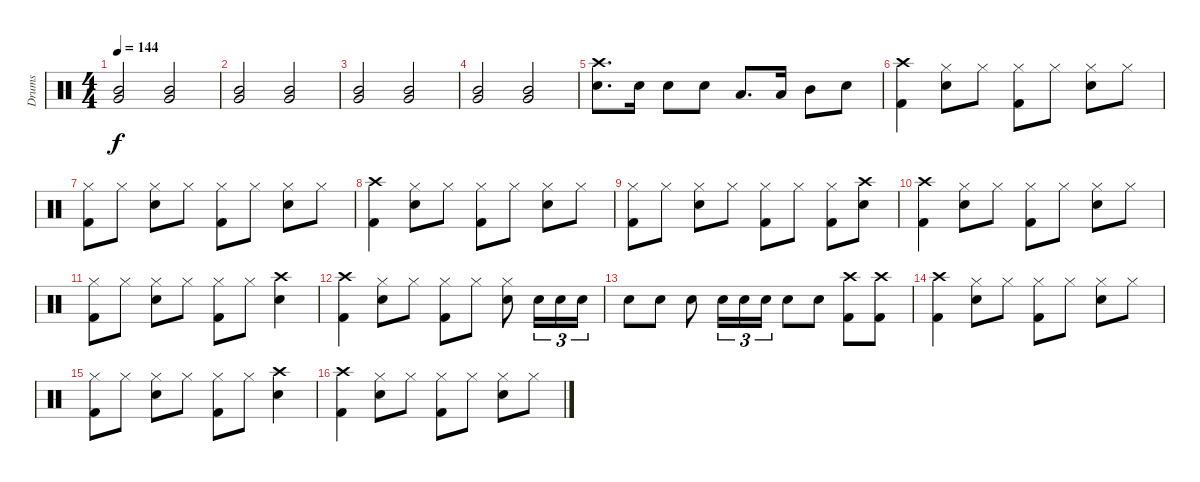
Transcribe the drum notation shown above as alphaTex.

\track ("Drums" "Drums") {instrument percussion}
\staff {score}
\articulation defaults
\ts (4 4)
\tempo 144
\clef neutral
\ks c
("Very Low Tom (hit)" "Mid Tom (hit)").2{dy f} ("Very Low Tom (hit)" "Mid Tom (hit)").2 |
("Very Low Tom (hit)" "Mid Tom (hit)").2 ("Very Low Tom (hit)" "Mid Tom (hit)").2 |
("Very Low Tom (hit)" "Mid Tom (hit)").2 ("Very Low Tom (hit)" "Mid Tom (hit)").2 |
("Very Low Tom (hit)" "Mid Tom (hit)").2 ("Very Low Tom (hit)" "Mid Tom (hit)").2 |
("Crash high (hit)" "Snare (hit) 2").8{d} "Snare (hit) 2".16 "Snare (hit) 2".8 "Snare (hit) 2".8 "Low Tom (hit)".8{d} "Low Tom (hit)".16 "Mid Tom (hit)".8 "Snare (hit) 2".8 |
("Crash high (hit)" "Kick (hit) 2").4 ("Hi-Hat (closed)" "Snare (hit) 2").8 "Hi-Hat (closed)".8 ("Hi-Hat (closed)" "Kick (hit) 2").8 "Hi-Hat (closed)".8 ("Hi-Hat (closed)" "Snare (hit) 2").8 "Hi-Hat (closed)".8 |
("Hi-Hat (closed)" "Kick (hit) 2").8 "Hi-Hat (closed)".8 ("Hi-Hat (closed)" "Snare (hit) 2").8 "Hi-Hat (closed)".8 ("Hi-Hat (closed)" "Kick (hit) 2").8 "Hi-Hat (closed)".8 ("Hi-Hat (closed)" "Snare (hit) 2").8 "Hi-Hat (closed)".8 |
("Crash high (hit)" "Kick (hit) 2").4 ("Hi-Hat (closed)" "Snare (hit) 2").8 "Hi-Hat (closed)".8 ("Hi-Hat (closed)" "Kick (hit) 2").8 "Hi-Hat (closed)".8 ("Hi-Hat (closed)" "Snare (hit) 2").8 "Hi-Hat (closed)".8 |
("Hi-Hat (closed)" "Kick (hit) 2").8 "Hi-Hat (closed)".8 ("Hi-Hat (closed)" "Snare (hit) 2").8 "Hi-Hat (closed)".8 ("Hi-Hat (closed)" "Kick (hit) 2").8 "Hi-Hat (closed)".8 ("Hi-Hat (closed)" "Kick (hit) 2").8 ("Crash high (hit)" "Snare (hit) 2").8 |
("Crash high (hit)" "Kick (hit) 2").4 ("Hi-Hat (closed)" "Snare (hit) 2").8 "Hi-Hat (closed)".8 ("Hi-Hat (closed)" "Kick (hit) 2").8 "Hi-Hat (closed)".8 ("Hi-Hat (closed)" "Snare (hit) 2").8 "Hi-Hat (closed)".8 |
("Hi-Hat (closed)" "Kick (hit) 2").8 "Hi-Hat (closed)".8 ("Hi-Hat (closed)" "Snare (hit) 2").8 "Hi-Hat (closed)".8 ("Hi-Hat (closed)" "Kick (hit) 2").8 "Hi-Hat (closed)".8 ("Crash high (hit)" "Snare (hit) 2").4 |
("Crash high (hit)" "Kick (hit) 2").4 ("Hi-Hat (closed)" "Snare (hit) 2").8 "Hi-Hat (closed)".8 ("Hi-Hat (closed)" "Kick (hit) 2").8 "Hi-Hat (closed)".8 ("Hi-Hat (closed)" "Snare (hit) 2").8 "Snare (hit) 2".16{tu (3 2)} "Snare (hit) 2".16{tu (3 2)} "Snare (hit) 2".16{tu (3 2)} |
"Snare (hit) 2".8 "Snare (hit) 2".8 "Snare (hit) 2".8 "Snare (hit) 2".16{tu (3 2)} "Snare (hit) 2".16{tu (3 2)} "Snare (hit) 2".16{tu (3 2)} "Snare (hit) 2".8 "Snare (hit) 2".8 ("Crash high (hit)" "Kick (hit) 2").8 ("Crash high (hit)" "Kick (hit) 2").8 |
("Crash high (hit)" "Kick (hit) 2").4 ("Hi-Hat (closed)" "Snare (hit) 2").8 "Hi-Hat (closed)".8 ("Hi-Hat (closed)" "Kick (hit) 2").8 "Hi-Hat (closed)".8 ("Hi-Hat (closed)" "Snare (hit) 2").8 "Hi-Hat (closed)".8 |
("Hi-Hat (closed)" "Kick (hit) 2").8 "Hi-Hat (closed)".8 ("Hi-Hat (closed)" "Snare (hit) 2").8 "Hi-Hat (closed)".8 ("Hi-Hat (closed)" "Kick (hit) 2").8 "Hi-Hat (closed)".8 ("Crash high (hit)" "Snare (hit) 2").4 |
("Crash high (hit)" "Kick (hit) 2").4 ("Hi-Hat (closed)" "Snare (hit) 2").8 "Hi-Hat (closed)".8 ("Hi-Hat (closed)" "Kick (hit) 2").8 "Hi-Hat (closed)".8 ("Hi-Hat (closed)" "Snare (hit) 2").8 "Hi-Hat (closed)".8
